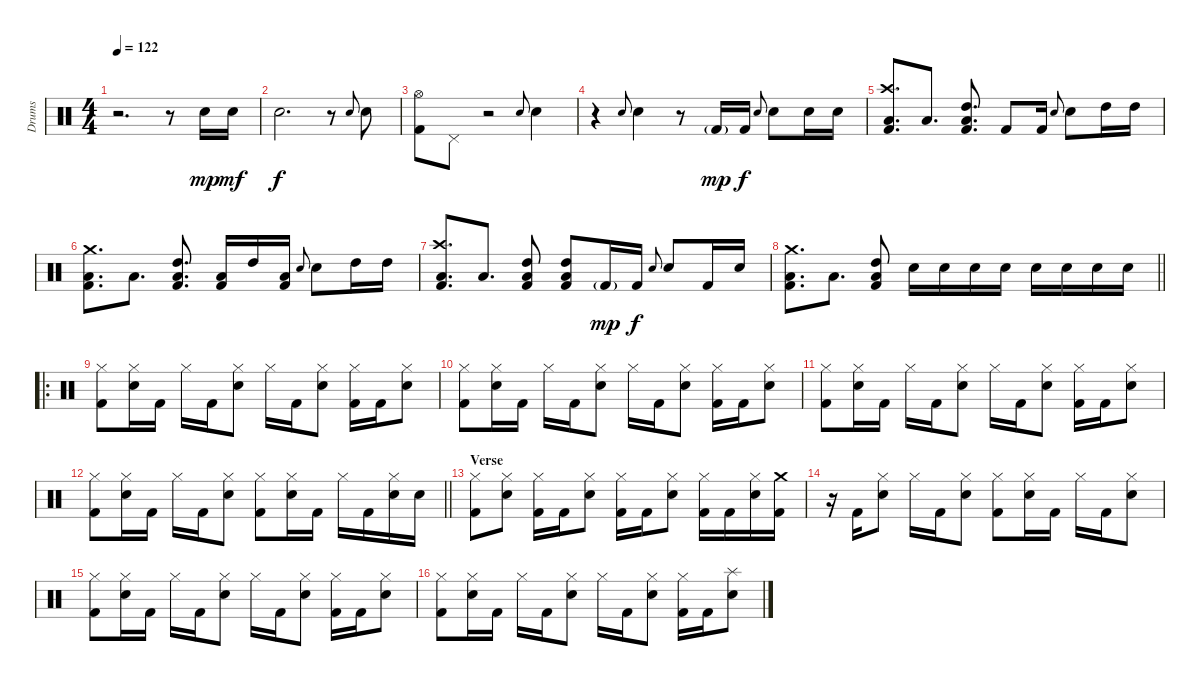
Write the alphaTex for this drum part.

\track ("Drums" "Drums") {instrument percussion}
\staff {score}
\articulation defaults
\ts (4 4)
\tempo 122
\clef neutral
\ks c
r.2{d dy mp} r.8 "Snare (hit) 2".16 "Snare (hit) 2".16{dy mf} |
"Snare (hit) 2".2{d dy f} r.8 "Snare (hit) 2".8{gr onbeat} "Snare (hit) 2".8 |
("Hi-Hat (open)" "Kick (hit) 2").8 "Pedal Hi-Hat (hit)".8 r.2 "Snare (hit) 2".8{gr onbeat} "Snare (hit) 2".4 |
r.4 "Snare (hit) 2".8{gr onbeat} "Snare (hit) 2".4 r.8 "Kick (hit) 2"{g}.16{dy mp} "Kick (hit) 2".16{dy f} "Snare (hit) 2".8{gr onbeat} "Snare (hit) 2".8 "Snare (hit) 2".16 "Snare (hit) 2".16 |
("Crash high (hit)" "Low Tom (hit)" "Kick (hit) 2").8{d} "Low Tom (hit)".8{d} ("High Tom (hit)" "Low Tom (hit)" "Kick (hit) 2").8{d} "Kick (hit) 2".8 "Kick (hit) 2".16 "Snare (hit) 2".8{gr onbeat} "Snare (hit) 2".8 "High Tom (hit)".16 "High Tom (hit)".16 |
("Crash medium (hit)" "Low Tom (hit)" "Kick (hit) 2").8{d} "Low Tom (hit)".8{d} ("High Tom (hit)" "Low Tom (hit)" "Kick (hit) 2").8{d} ("Low Tom (hit)" "Kick (hit) 2").16 "High Tom (hit)".16 ("Low Tom (hit)" "Kick (hit) 2").16 "Snare (hit) 2".8{gr onbeat} "Snare (hit) 2".8 "High Tom (hit)".16 "High Tom (hit)".16 |
("Crash high (hit)" "Low Tom (hit)" "Kick (hit) 2").8{d} "Low Tom (hit)".8{d} ("High Tom (hit)" "Low Tom (hit)" "Kick (hit) 2").8 ("High Tom (hit)" "Low Tom (hit)" "Kick (hit) 2").8 "Kick (hit) 2"{g}.16{dy mp} "Kick (hit) 2".16{dy f} "Snare (hit) 2".8{gr onbeat} "Snare (hit) 2".8 "Kick (hit) 2".16 "Snare (hit) 2".16 |
\barLineRight lightlight
("Crash medium (hit)" "Low Tom (hit)" "Kick (hit) 2").8{d} "Low Tom (hit)".8{d} ("High Tom (hit)" "Low Tom (hit)" "Kick (hit) 2").8 "Snare (hit) 2".16 "Snare (hit) 2".16 "Snare (hit) 2".16 "Snare (hit) 2".16 "Snare (hit) 2".16 "Snare (hit) 2".16 "Snare (hit) 2".16 "Snare (hit) 2".16 |
\ro
\section ("" "")
("Hi-Hat (closed)" "Kick (hit) 2").8 ("Hi-Hat (closed)" "Snare (hit) 2").16 "Kick (hit) 2".16 "Hi-Hat (closed)".16 "Kick (hit) 2".16 ("Hi-Hat (closed)" "Snare (hit) 2").8 "Hi-Hat (closed)".16 "Kick (hit) 2".16 ("Hi-Hat (closed)" "Snare (hit) 2").8 ("Hi-Hat (closed)" "Kick (hit) 2").16 "Kick (hit) 2".16 ("Hi-Hat (closed)" "Snare (hit) 2").8 |
("Hi-Hat (closed)" "Kick (hit) 2").8 ("Hi-Hat (closed)" "Snare (hit) 2").16 "Kick (hit) 2".16 "Hi-Hat (closed)".16 "Kick (hit) 2".16 ("Hi-Hat (closed)" "Snare (hit) 2").8 "Hi-Hat (closed)".16 "Kick (hit) 2".16 ("Hi-Hat (closed)" "Snare (hit) 2").8 ("Hi-Hat (closed)" "Kick (hit) 2").16 "Kick (hit) 2".16 ("Hi-Hat (closed)" "Snare (hit) 2").8 |
("Hi-Hat (closed)" "Kick (hit) 2").8 ("Hi-Hat (closed)" "Snare (hit) 2").16 "Kick (hit) 2".16 "Hi-Hat (closed)".16 "Kick (hit) 2".16 ("Hi-Hat (closed)" "Snare (hit) 2").8 "Hi-Hat (closed)".16 "Kick (hit) 2".16 ("Hi-Hat (closed)" "Snare (hit) 2").8 ("Hi-Hat (closed)" "Kick (hit) 2").16 "Kick (hit) 2".16 ("Hi-Hat (closed)" "Snare (hit) 2").8 |
\barLineRight lightlight
("Hi-Hat (closed)" "Kick (hit) 2").8 ("Hi-Hat (closed)" "Snare (hit) 2").16 "Kick (hit) 2".16 "Hi-Hat (closed)".16 "Kick (hit) 2".16 ("Hi-Hat (closed)" "Snare (hit) 2").8 ("Hi-Hat (closed)" "Kick (hit) 2").8 ("Hi-Hat (closed)" "Snare (hit) 2").16 "Kick (hit) 2".16 "Hi-Hat (closed)".16 "Kick (hit) 2".16 ("Hi-Hat (closed)" "Snare (hit) 2").16 "Snare (hit) 2".16 |
\section ("" "Verse")
("Hi-Hat (closed)" "Kick (hit) 2").8 ("Hi-Hat (closed)" "Snare (hit) 2").8 ("Hi-Hat (closed)" "Kick (hit) 2").16 "Kick (hit) 2".16 ("Hi-Hat (closed)" "Snare (hit) 2").8 ("Hi-Hat (closed)" "Kick (hit) 2").16 "Kick (hit) 2".16 ("Hi-Hat (closed)" "Snare (hit) 2").8 ("Hi-Hat (closed)" "Kick (hit) 2").16 "Kick (hit) 2".16 ("Hi-Hat (closed)" "Snare (hit) 2").16 ("Crash medium (hit)" "Kick (hit) 2").16 |
r.16 "Kick (hit) 2".16 ("Hi-Hat (closed)" "Snare (hit) 2").8 "Hi-Hat (closed)".16 "Kick (hit) 2".16 ("Hi-Hat (closed)" "Snare (hit) 2").8 ("Hi-Hat (closed)" "Kick (hit) 2").8 ("Hi-Hat (closed)" "Snare (hit) 2").16 "Kick (hit) 2".16 "Hi-Hat (closed)".16 "Kick (hit) 2".16 ("Hi-Hat (closed)" "Snare (hit) 2").8 |
("Hi-Hat (closed)" "Kick (hit) 2").8 ("Hi-Hat (closed)" "Snare (hit) 2").16 "Kick (hit) 2".16 "Hi-Hat (closed)".16 "Kick (hit) 2".16 ("Hi-Hat (closed)" "Snare (hit) 2").8 "Hi-Hat (closed)".16 "Kick (hit) 2".16 ("Hi-Hat (closed)" "Snare (hit) 2").8 ("Hi-Hat (closed)" "Kick (hit) 2").16 "Kick (hit) 2".16 ("Hi-Hat (closed)" "Snare (hit) 2").8 |
("Hi-Hat (closed)" "Kick (hit) 2").8 ("Hi-Hat (closed)" "Snare (hit) 2").16 "Kick (hit) 2".16 "Hi-Hat (closed)".16 "Kick (hit) 2".16 ("Hi-Hat (closed)" "Snare (hit) 2").8 "Hi-Hat (closed)".16 "Kick (hit) 2".16 ("Hi-Hat (closed)" "Snare (hit) 2").8 ("Hi-Hat (closed)" "Kick (hit) 2").16 "Kick (hit) 2".16 ("Splash (hit)" "Snare (hit) 2").8
